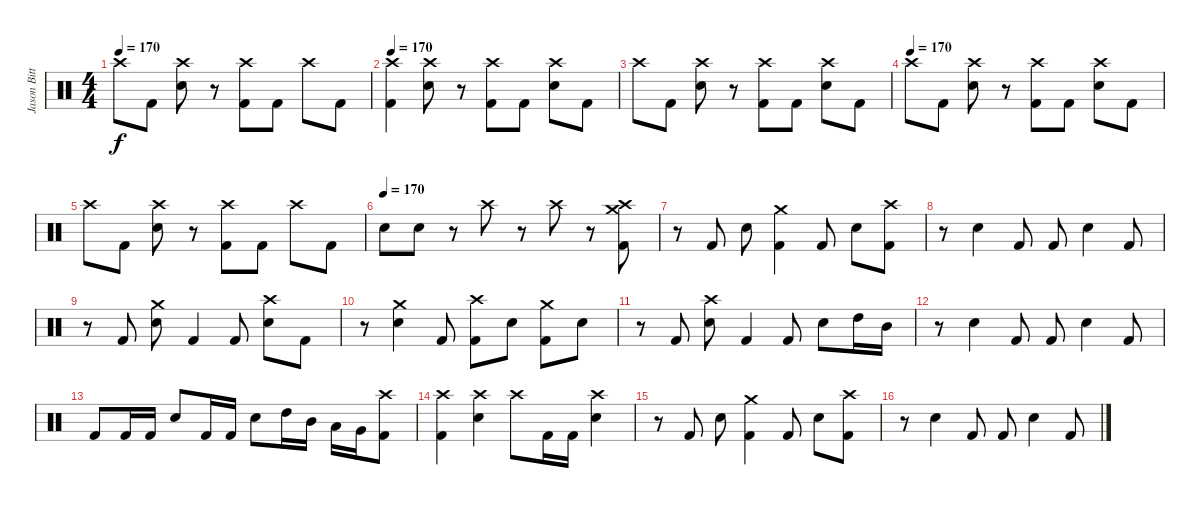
\track ("Jason Bittner" "Jason Bitt") {instrument percussion}
\staff {score}
\articulation defaults
\ts (4 4)
\tempo 170
\clef neutral
\ks c "Crash high (hit)".8{dy f} "Kick (hit) 2".8
("Crash high (hit)" "Electric Snare (hit)").8 r.8 ("Crash high (hit)" "Kick (hit) 2").8 "Kick (hit) 2".8 "Crash high (hit)".8 "Kick (hit) 2".8 |
\tempo 170
("Crash high (hit)" "Kick (hit) 2").4 ("Crash high (hit)" "Electric Snare (hit)").8 r.8 ("Crash high (hit)" "Kick (hit) 2").8 "Kick (hit) 2".8 ("Crash high (hit)" "Electric Snare (hit)").8 "Kick (hit) 2".8 |
"Crash high (hit)".8 "Kick (hit) 2".8 ("Crash high (hit)" "Electric Snare (hit)").8 r.8 ("Crash high (hit)" "Kick (hit) 2").8 "Kick (hit) 2".8 ("Crash high (hit)" "Electric Snare (hit)").8 "Kick (hit) 2".8 |
\tempo (170)
"Crash high (hit)".8 "Kick (hit) 2".8 ("Crash high (hit)" "Electric Snare (hit)").8 r.8 ("Crash high (hit)" "Kick (hit) 2").8 "Kick (hit) 2".8 ("Crash high (hit)" "Electric Snare (hit)").8 "Kick (hit) 2".8 |
"Crash high (hit)".8 "Kick (hit) 2".8 ("Crash high (hit)" "Electric Snare (hit)").8 r.8 ("Crash high (hit)" "Kick (hit) 2").8 "Kick (hit) 2".8 "Crash high (hit)".8 "Kick (hit) 2".8 |
\tempo (170)
"Electric Snare (hit)".8 "Electric Snare (hit)".8 r.8 "Crash high (hit)".8 r.8 "Crash high (hit)".8 r.8 ("Crash high (hit)" "Crash medium (hit)" "Kick (hit) 2").8 |
r.8 "Kick (hit) 2".8 "Electric Snare (hit)".8 ("Crash medium (hit)" "Kick (hit) 2").4 "Kick (hit) 2".8 "Electric Snare (hit)".8 ("Crash high (hit)" "Kick (hit) 2").8 |
r.8 "Electric Snare (hit)".4 "Kick (hit) 2".8 "Kick (hit) 2".8 "Electric Snare (hit)".4 "Kick (hit) 2".8 |
r.8 "Kick (hit) 2".8 ("Crash medium (hit)" "Electric Snare (hit)").8 "Kick (hit) 2".4 "Kick (hit) 2".8 ("Crash high (hit)" "Electric Snare (hit)").8 "Kick (hit) 2".8 |
r.8 ("Crash medium (hit)" "Electric Snare (hit)").4 "Kick (hit) 2".8 ("Crash high (hit)" "Kick (hit) 2").8 "Electric Snare (hit)".8 ("Crash medium (hit)" "Kick (hit) 2").8 "Electric Snare (hit)".8 |
r.8 "Kick (hit) 2".8 ("Crash high (hit)" "Electric Snare (hit)").8 "Kick (hit) 2".4 "Kick (hit) 2".8 "Electric Snare (hit)".8 "High Tom (hit)".16 "Mid Tom (hit)".16 |
r.8 "Electric Snare (hit)".4 "Kick (hit) 2".8 "Kick (hit) 2".8 "Electric Snare (hit)".4 "Kick (hit) 2".8 |
"Kick (hit) 2".8 "Kick (hit) 2".16 "Kick (hit) 2".16 "Electric Snare (hit)".8 "Kick (hit) 2".16 "Kick (hit) 2".16 "Electric Snare (hit)".8 "High Tom (hit)".16 "Mid Tom (hit)".16 "Low Tom (hit)".16 "Very Low Tom (hit)".16 ("Crash high (hit)" "Kick (hit) 2").8 |
("Crash high (hit)" "Kick (hit) 2").4 ("Crash high (hit)" "Electric Snare (hit)").4 "Crash high (hit)".8 "Kick (hit) 2".16 "Kick (hit) 2".16 ("Crash high (hit)" "Electric Snare (hit)").4 |
r.8 "Kick (hit) 2".8 "Electric Snare (hit)".8 ("Crash medium (hit)" "Kick (hit) 2").4 "Kick (hit) 2".8 "Electric Snare (hit)".8 ("Crash high (hit)" "Kick (hit) 2").8 |
r.8 "Electric Snare (hit)".4 "Kick (hit) 2".8 "Kick (hit) 2".8 "Electric Snare (hit)".4 "Kick (hit) 2".8
